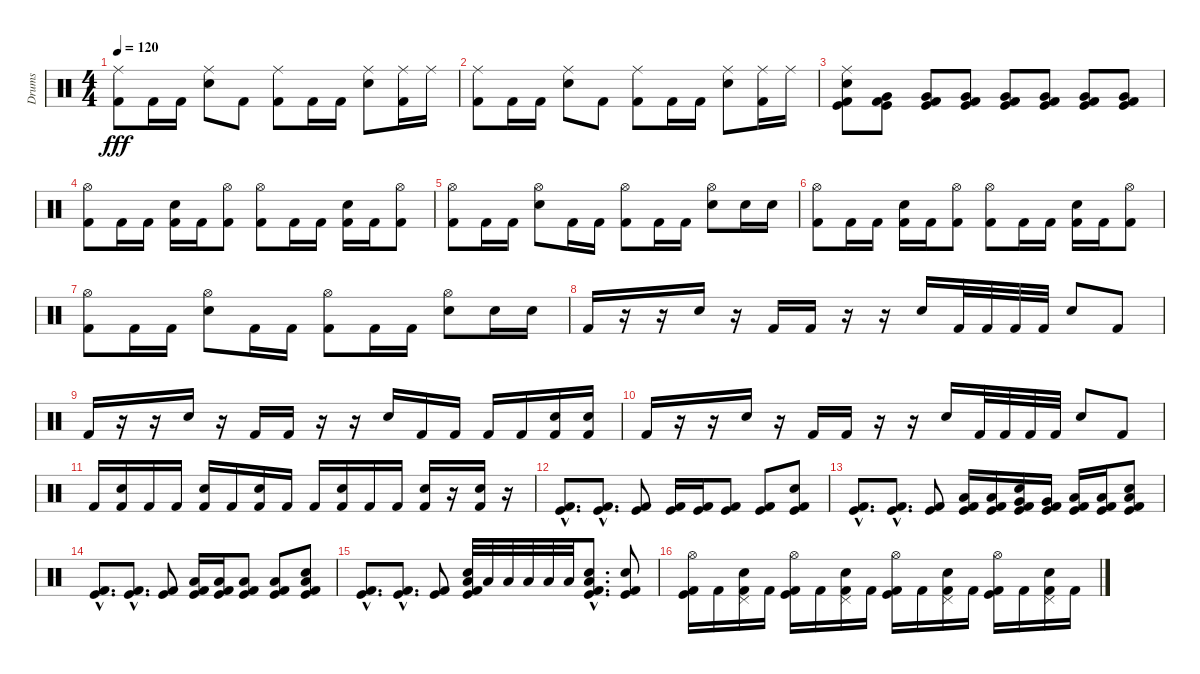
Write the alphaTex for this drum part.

\track ("Drums" "Drums") {instrument percussion}
\staff {score}
\articulation defaults
\ts (4 4)
\tempo 120
\clef neutral
\ks c
("Ride (middle)" "Kick (hit) 2").8{dy fff} "Kick (hit) 2".16 "Kick (hit) 2".16 ("Ride (middle)" "Electric Snare (hit)").8 "Kick (hit) 2".8 ("Ride (middle)" "Kick (hit) 2").8 "Kick (hit) 2".16 "Kick (hit) 2".16 ("Ride (middle)" "Electric Snare (hit)").8 ("Ride (middle)" "Kick (hit) 2").16 "Ride (middle)".16 |
("Ride (middle)" "Kick (hit) 2").8 "Kick (hit) 2".16 "Kick (hit) 2".16 ("Ride (middle)" "Electric Snare (hit)").8 "Kick (hit) 2".8 ("Ride (middle)" "Kick (hit) 2").8 "Kick (hit) 2".16 "Kick (hit) 2".16 ("Ride (middle)" "Electric Snare (hit)").8 ("Ride (middle)" "Kick (hit) 2").16 "Ride (middle)".16 |
("Ride (middle)" "Snare (hit) 2" "Kick (hit) 2" "Kick (hit)").8 ("Very Low Tom (hit)" "Kick (hit) 2" "Kick (hit)").8 ("Very Low Tom (hit)" "Kick (hit) 2" "Kick (hit)").8 ("Very Low Tom (hit)" "Kick (hit) 2" "Kick (hit)").8 ("Very Low Tom (hit)" "Kick (hit) 2" "Kick (hit)").8 ("Very Low Tom (hit)" "Kick (hit) 2" "Kick (hit)").8 ("Very Low Tom (hit)" "Kick (hit) 2" "Kick (hit)").8 ("Very Low Tom (hit)" "Kick (hit) 2" "Kick (hit)").8 |
("Hi-Hat (open)" "Kick (hit) 2").8 "Kick (hit) 2".16 "Kick (hit) 2".16 ("Electric Snare (hit)" "Kick (hit) 2").16 "Kick (hit) 2".16 ("Hi-Hat (open)" "Kick (hit) 2").8 ("Hi-Hat (open)" "Kick (hit) 2").8 "Kick (hit) 2".16 "Kick (hit) 2".16 ("Electric Snare (hit)" "Kick (hit) 2").16 "Kick (hit) 2".16 ("Hi-Hat (open)" "Kick (hit) 2").8 |
("Hi-Hat (open)" "Kick (hit) 2").8 "Kick (hit) 2".16 "Kick (hit) 2".16 ("Hi-Hat (open)" "Electric Snare (hit)").8 "Kick (hit) 2".16 "Kick (hit) 2".16 ("Hi-Hat (open)" "Kick (hit) 2").8 "Kick (hit) 2".16 "Kick (hit) 2".16 ("Hi-Hat (open)" "Electric Snare (hit)").8 "Electric Snare (hit)".16 "Electric Snare (hit)".16 |
("Hi-Hat (open)" "Kick (hit) 2").8 "Kick (hit) 2".16 "Kick (hit) 2".16 ("Electric Snare (hit)" "Kick (hit) 2").16 "Kick (hit) 2".16 ("Hi-Hat (open)" "Kick (hit) 2").8 ("Hi-Hat (open)" "Kick (hit) 2").8 "Kick (hit) 2".16 "Kick (hit) 2".16 ("Electric Snare (hit)" "Kick (hit) 2").16 "Kick (hit) 2".16 ("Hi-Hat (open)" "Kick (hit) 2").8 |
("Hi-Hat (open)" "Kick (hit) 2").8 "Kick (hit) 2".16 "Kick (hit) 2".16 ("Hi-Hat (open)" "Electric Snare (hit)").8 "Kick (hit) 2".16 "Kick (hit) 2".16 ("Hi-Hat (open)" "Kick (hit) 2").8 "Kick (hit) 2".16 "Kick (hit) 2".16 ("Hi-Hat (open)" "Electric Snare (hit)").8 "Electric Snare (hit)".16 "Electric Snare (hit)".16 |
"Kick (hit) 2".16 r.16 r.16 "Snare (hit) 2".16 r.16 "Kick (hit) 2".16 "Kick (hit) 2".16 r.16 r.16 "Snare (hit) 2".16 "Kick (hit) 2".32 "Kick (hit) 2".32 "Kick (hit) 2".32 "Kick (hit) 2".32 "Snare (hit) 2".8 "Kick (hit) 2".8 |
"Kick (hit) 2".16 r.16 r.16 "Snare (hit) 2".16 r.16 "Kick (hit) 2".16 "Kick (hit) 2".16 r.16 r.16 "Snare (hit) 2".16 "Kick (hit) 2".16 "Kick (hit) 2".16 "Kick (hit) 2".16 "Kick (hit) 2".16 ("Snare (hit) 2" "Kick (hit) 2").16 ("Snare (hit) 2" "Kick (hit) 2").16 |
"Kick (hit) 2".16 r.16 r.16 "Snare (hit) 2".16 r.16 "Kick (hit) 2".16 "Kick (hit) 2".16 r.16 r.16 "Snare (hit) 2".16 "Kick (hit) 2".32 "Kick (hit) 2".32 "Kick (hit) 2".32 "Kick (hit) 2".32 "Snare (hit) 2".8 "Kick (hit) 2".8 |
"Kick (hit) 2".16 ("Snare (hit) 2" "Kick (hit) 2").16 "Kick (hit) 2".16 "Kick (hit) 2".16 ("Snare (hit) 2" "Kick (hit) 2").16 "Kick (hit) 2".16 ("Snare (hit) 2" "Kick (hit) 2").16 "Kick (hit) 2".16 "Kick (hit) 2".16 ("Snare (hit) 2" "Kick (hit) 2").16 "Kick (hit) 2".16 "Kick (hit) 2".16 ("Snare (hit) 2" "Kick (hit) 2").16 r.16 ("Snare (hit) 2" "Kick (hit) 2").16 r.16 |
("Kick (hit) 2"{hac} "Kick (hit)"{hac}).8{d} ("Kick (hit) 2"{hac} "Kick (hit)"{hac}).8{d} ("Kick (hit) 2" "Kick (hit)").8 ("Kick (hit) 2" "Kick (hit)").16 ("Kick (hit) 2" "Kick (hit)").16 ("Kick (hit) 2" "Kick (hit)").8 ("Kick (hit) 2" "Kick (hit)").8 ("Snare (hit) 2" "Kick (hit) 2" "Kick (hit)").8 |
("Kick (hit) 2"{hac} "Kick (hit)"{hac}).8{d} ("Kick (hit) 2"{hac} "Kick (hit)"{hac}).8{d} ("Kick (hit) 2" "Kick (hit)").8 ("Low Tom (hit)" "Kick (hit) 2" "Kick (hit)").16 ("Low Tom (hit)" "Kick (hit) 2" "Kick (hit)").16 ("Very Low Tom (hit)" "Snare (hit) 2" "Kick (hit) 2" "Kick (hit)").16 ("Very Low Tom (hit)" "Kick (hit) 2" "Kick (hit)").16 ("Low Floor Tom (hit)" "Kick (hit) 2" "Kick (hit)").16 ("Low Floor Tom (hit)" "Kick (hit) 2" "Kick (hit)").16 ("Low Floor Tom (hit)" "Snare (hit) 2" "Kick (hit) 2" "Kick (hit)").8 |
("Kick (hit) 2"{hac} "Kick (hit)"{hac}).8{d} ("Kick (hit) 2"{hac} "Kick (hit)"{hac}).8{d} ("Kick (hit) 2" "Kick (hit)").8 ("Low Floor Tom (hit)" "Kick (hit) 2" "Kick (hit)").16 ("Low Floor Tom (hit)" "Kick (hit) 2" "Kick (hit)").16 ("Low Floor Tom (hit)" "Kick (hit) 2" "Kick (hit)").8 ("Low Floor Tom (hit)" "Kick (hit) 2" "Kick (hit)").8 ("Low Floor Tom (hit)" "Snare (hit) 2" "Kick (hit) 2" "Kick (hit)").8 |
("Kick (hit) 2"{hac} "Kick (hit)"{hac}).8{d} ("Kick (hit) 2"{hac} "Kick (hit)"{hac}).8{d} ("Kick (hit) 2" "Kick (hit)").8 ("Low Tom (hit)" "Snare (hit) 2" "Kick (hit) 2" "Kick (hit)").32 "Low Tom (hit)".32 "Low Tom (hit)".32 "Low Tom (hit)".32 "Low Tom (hit)".32 "Low Tom (hit)".32 ("Low Tom (hit)"{hac} "Snare (hit) 2"{hac} "Kick (hit) 2"{hac} "Kick (hit)"{hac}).8{d} ("Snare (hit) 2" "Kick (hit) 2" "Kick (hit)").8 |
("Hi-Hat (open)" "Kick (hit) 2" "Kick (hit)").16 "Kick (hit) 2".16 ("Pedal Hi-Hat (hit)" "Snare (hit) 2" "Kick (hit) 2").16 "Kick (hit) 2".16 ("Hi-Hat (open)" "Kick (hit) 2" "Kick (hit)").16 "Kick (hit) 2".16 ("Pedal Hi-Hat (hit)" "Snare (hit) 2" "Kick (hit) 2").16 "Kick (hit) 2".16 ("Hi-Hat (open)" "Kick (hit) 2" "Kick (hit)").16 "Kick (hit) 2".16 ("Pedal Hi-Hat (hit)" "Snare (hit) 2" "Kick (hit) 2").16 "Kick (hit) 2".16 ("Hi-Hat (open)" "Kick (hit) 2" "Kick (hit)").16 "Kick (hit) 2".16 ("Pedal Hi-Hat (hit)" "Snare (hit) 2" "Kick (hit) 2").16 "Kick (hit) 2".16
